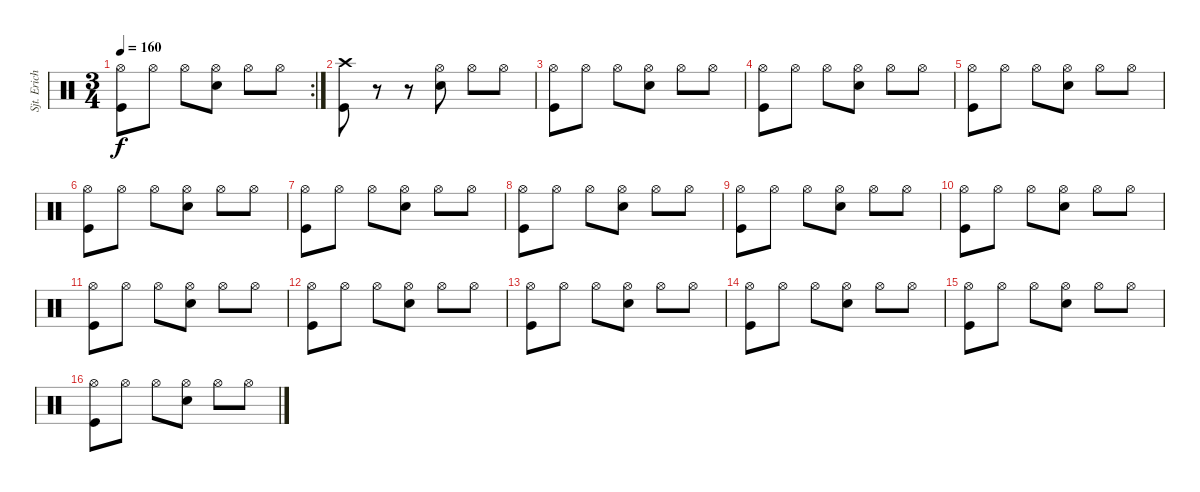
\track ("Sjt. Erichsen" "Sjt. Erich") {instrument percussion}
\staff {score}
\articulation defaults
\rc 2
\ts (3 4)
\tempo 160
\clef neutral
\ks c
("Hi-Hat (open)" "Kick (hit)").8{dy f} "Hi-Hat (open)".8 "Hi-Hat (open)".8 ("Hi-Hat (open)" "Electric Snare (hit)").8 "Hi-Hat (open)".8 "Hi-Hat (open)".8 |
("Crash high (hit)" "Kick (hit)").8 r.8 r.8 ("Hi-Hat (open)" "Electric Snare (hit)").8 "Hi-Hat (open)".8 "Hi-Hat (open)".8 |
("Hi-Hat (open)" "Kick (hit)").8 "Hi-Hat (open)".8 "Hi-Hat (open)".8 ("Hi-Hat (open)" "Electric Snare (hit)").8 "Hi-Hat (open)".8 "Hi-Hat (open)".8 |
("Hi-Hat (open)" "Kick (hit)").8 "Hi-Hat (open)".8 "Hi-Hat (open)".8 ("Hi-Hat (open)" "Electric Snare (hit)").8 "Hi-Hat (open)".8 "Hi-Hat (open)".8 |
("Hi-Hat (open)" "Kick (hit)").8 "Hi-Hat (open)".8 "Hi-Hat (open)".8 ("Hi-Hat (open)" "Electric Snare (hit)").8 "Hi-Hat (open)".8 "Hi-Hat (open)".8 |
("Hi-Hat (open)" "Kick (hit)").8 "Hi-Hat (open)".8 "Hi-Hat (open)".8 ("Hi-Hat (open)" "Electric Snare (hit)").8 "Hi-Hat (open)".8 "Hi-Hat (open)".8 |
("Hi-Hat (open)" "Kick (hit)").8 "Hi-Hat (open)".8 "Hi-Hat (open)".8 ("Hi-Hat (open)" "Electric Snare (hit)").8 "Hi-Hat (open)".8 "Hi-Hat (open)".8 |
("Hi-Hat (open)" "Kick (hit)").8 "Hi-Hat (open)".8 "Hi-Hat (open)".8 ("Hi-Hat (open)" "Electric Snare (hit)").8 "Hi-Hat (open)".8 "Hi-Hat (open)".8 |
("Hi-Hat (open)" "Kick (hit)").8 "Hi-Hat (open)".8 "Hi-Hat (open)".8 ("Hi-Hat (open)" "Electric Snare (hit)").8 "Hi-Hat (open)".8 "Hi-Hat (open)".8 |
("Hi-Hat (open)" "Kick (hit)").8 "Hi-Hat (open)".8 "Hi-Hat (open)".8 ("Hi-Hat (open)" "Electric Snare (hit)").8 "Hi-Hat (open)".8 "Hi-Hat (open)".8 |
("Hi-Hat (open)" "Kick (hit)").8 "Hi-Hat (open)".8 "Hi-Hat (open)".8 ("Hi-Hat (open)" "Electric Snare (hit)").8 "Hi-Hat (open)".8 "Hi-Hat (open)".8 |
("Hi-Hat (open)" "Kick (hit)").8 "Hi-Hat (open)".8 "Hi-Hat (open)".8 ("Hi-Hat (open)" "Electric Snare (hit)").8 "Hi-Hat (open)".8 "Hi-Hat (open)".8 |
("Hi-Hat (open)" "Kick (hit)").8 "Hi-Hat (open)".8 "Hi-Hat (open)".8 ("Hi-Hat (open)" "Electric Snare (hit)").8 "Hi-Hat (open)".8 "Hi-Hat (open)".8 |
("Hi-Hat (open)" "Kick (hit)").8 "Hi-Hat (open)".8 "Hi-Hat (open)".8 ("Hi-Hat (open)" "Electric Snare (hit)").8 "Hi-Hat (open)".8 "Hi-Hat (open)".8 |
("Hi-Hat (open)" "Kick (hit)").8 "Hi-Hat (open)".8 "Hi-Hat (open)".8 ("Hi-Hat (open)" "Electric Snare (hit)").8 "Hi-Hat (open)".8 "Hi-Hat (open)".8 |
("Hi-Hat (open)" "Kick (hit)").8 "Hi-Hat (open)".8 "Hi-Hat (open)".8 ("Hi-Hat (open)" "Electric Snare (hit)").8 "Hi-Hat (open)".8 "Hi-Hat (open)".8
